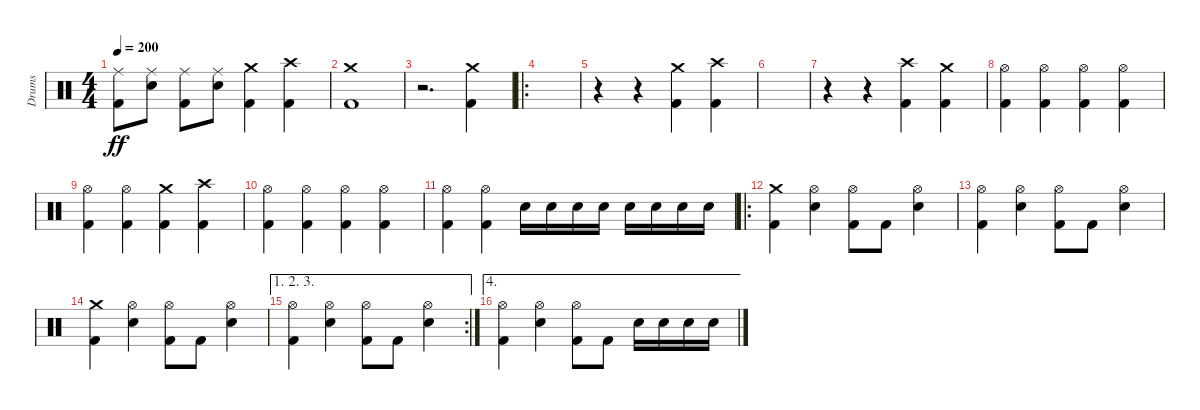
\track ("Drums" "Drums") {instrument percussion}
\staff {score}
\articulation defaults
\ts (4 4)
\tempo 200
\clef neutral
\ks c
("Ride (middle)" "Kick (hit) 2").8{dy ff} ("Ride (middle)" "Snare (hit) 2").8 ("Ride (middle)" "Kick (hit) 2").8 ("Ride (middle)" "Snare (hit) 2").8 ("Crash medium (hit)" "Kick (hit) 2").4 ("Crash high (hit)" "Kick (hit) 2").4 |
("Crash medium (hit)" "Kick (hit) 2").1 |
r.2{d} ("Crash medium (hit)" "Kick (hit) 2").4 |
\ro
|
r.4 r.4 ("Crash medium (hit)" "Kick (hit) 2").4 ("Crash high (hit)" "Kick (hit) 2").4 |
|
r.4 r.4 ("Crash high (hit)" "Kick (hit) 2").4 ("Crash medium (hit)" "Kick (hit) 2").4 |
("Hi-Hat (open)" "Kick (hit) 2").4 ("Hi-Hat (open)" "Kick (hit) 2").4 ("Hi-Hat (open)" "Kick (hit) 2").4 ("Hi-Hat (open)" "Kick (hit) 2").4 |
("Hi-Hat (open)" "Kick (hit) 2").4 ("Hi-Hat (open)" "Kick (hit) 2").4 ("Crash medium (hit)" "Kick (hit) 2").4 ("Crash high (hit)" "Kick (hit) 2").4 |
("Hi-Hat (open)" "Kick (hit) 2").4 ("Hi-Hat (open)" "Kick (hit) 2").4 ("Hi-Hat (open)" "Kick (hit) 2").4 ("Hi-Hat (open)" "Kick (hit) 2").4 |
("Hi-Hat (open)" "Kick (hit) 2").4 ("Hi-Hat (open)" "Kick (hit) 2").4 "Snare (hit) 2".16 "Snare (hit) 2".16 "Snare (hit) 2".16 "Snare (hit) 2".16 "Snare (hit) 2".16 "Snare (hit) 2".16 "Snare (hit) 2".16 "Snare (hit) 2".16 |
\ro
("Crash medium (hit)" "Kick (hit) 2").4 ("Hi-Hat (open)" "Snare (hit) 2").4 ("Hi-Hat (open)" "Kick (hit) 2").8 "Kick (hit) 2".8 ("Hi-Hat (open)" "Snare (hit) 2").4 |
("Hi-Hat (open)" "Kick (hit) 2").4 ("Hi-Hat (open)" "Snare (hit) 2").4 ("Hi-Hat (open)" "Kick (hit) 2").8 "Kick (hit) 2".8 ("Hi-Hat (open)" "Snare (hit) 2").4 |
("Crash medium (hit)" "Kick (hit) 2").4 ("Hi-Hat (open)" "Snare (hit) 2").4 ("Hi-Hat (open)" "Kick (hit) 2").8 "Kick (hit) 2".8 ("Hi-Hat (open)" "Snare (hit) 2").4 |
\ae (1 2 3)
\rc 2
("Hi-Hat (open)" "Kick (hit) 2").4 ("Hi-Hat (open)" "Snare (hit) 2").4 ("Hi-Hat (open)" "Kick (hit) 2").8 "Kick (hit) 2".8 ("Hi-Hat (open)" "Snare (hit) 2").4 |
\ae 4
("Hi-Hat (open)" "Kick (hit) 2").4 ("Hi-Hat (open)" "Snare (hit) 2").4 ("Hi-Hat (open)" "Kick (hit) 2").8 "Kick (hit) 2".8 "Snare (hit) 2".16 "Snare (hit) 2".16 "Snare (hit) 2".16 "Snare (hit) 2".16
